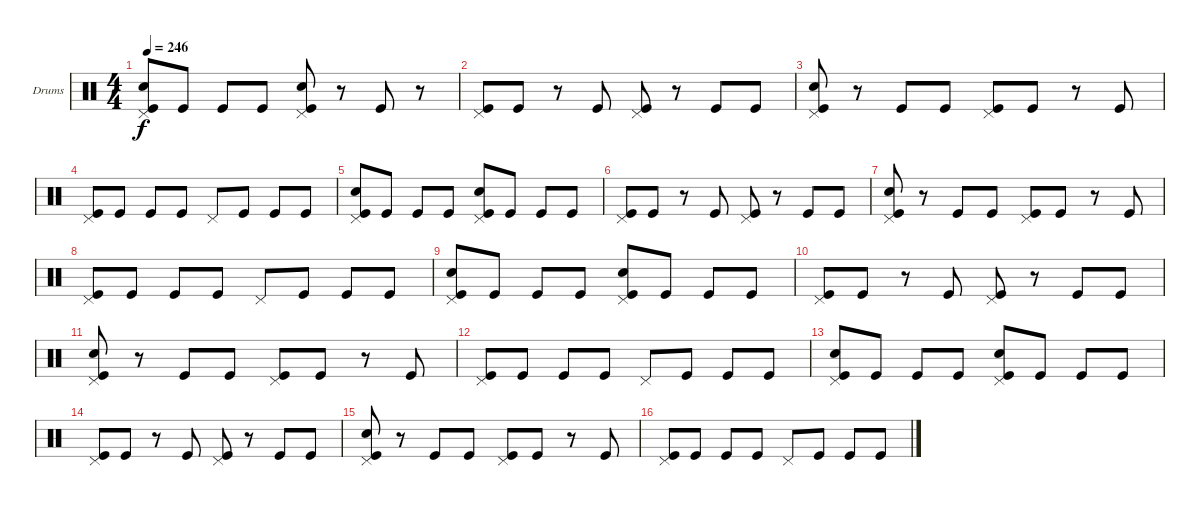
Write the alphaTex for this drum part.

\bracketExtendMode groupsimilarinstruments
\firstSystemTrackNameOrientation horizontal
\otherSystemsTrackNameOrientation horizontal
\track ("Drumkit" "Drums") {instrument percussion}
\staff {score}
\articulation defaults
\ts (4 4)
\tempo 246
\clef neutral
\ks c
("Kick (hit)" "Snare (hit) 2" "Pedal Hi-Hat (hit)").8{dy f} "Kick (hit)".8 "Kick (hit)".8 "Kick (hit)".8 ("Snare (hit) 2" "Pedal Hi-Hat (hit)" "Kick (hit)").8 r.8 "Kick (hit)".8 r.8 |
("Kick (hit)" "Pedal Hi-Hat (hit)").8 "Kick (hit)".8 r.8 "Kick (hit)".8 ("Pedal Hi-Hat (hit)" "Kick (hit)").8 r.8 "Kick (hit)".8 "Kick (hit)".8 |
("Snare (hit) 2" "Pedal Hi-Hat (hit)" "Kick (hit)").8 r.8 "Kick (hit)".8 "Kick (hit)".8 ("Kick (hit)" "Pedal Hi-Hat (hit)").8 "Kick (hit)".8 r.8 "Kick (hit)".8 |
("Pedal Hi-Hat (hit)" "Kick (hit)").8 "Kick (hit)".8 "Kick (hit)".8 "Kick (hit)".8 "Pedal Hi-Hat (hit)".8 "Kick (hit)".8 "Kick (hit)".8 "Kick (hit)".8 |
("Pedal Hi-Hat (hit)" "Snare (hit) 2" "Kick (hit)").8 "Kick (hit)".8 "Kick (hit)".8 "Kick (hit)".8 ("Snare (hit) 2" "Pedal Hi-Hat (hit)" "Kick (hit)").8 "Kick (hit)".8 "Kick (hit)".8 "Kick (hit)".8 |
("Kick (hit)" "Pedal Hi-Hat (hit)").8 "Kick (hit)".8 r.8 "Kick (hit)".8 ("Pedal Hi-Hat (hit)" "Kick (hit)").8 r.8 "Kick (hit)".8 "Kick (hit)".8 |
("Snare (hit) 2" "Pedal Hi-Hat (hit)" "Kick (hit)").8 r.8 "Kick (hit)".8 "Kick (hit)".8 ("Kick (hit)" "Pedal Hi-Hat (hit)").8 "Kick (hit)".8 r.8 "Kick (hit)".8 |
("Pedal Hi-Hat (hit)" "Kick (hit)").8 "Kick (hit)".8 "Kick (hit)".8 "Kick (hit)".8 "Pedal Hi-Hat (hit)".8 "Kick (hit)".8 "Kick (hit)".8 "Kick (hit)".8 |
("Kick (hit)" "Snare (hit) 2" "Pedal Hi-Hat (hit)").8 "Kick (hit)".8 "Kick (hit)".8 "Kick (hit)".8 ("Kick (hit)" "Pedal Hi-Hat (hit)" "Snare (hit) 2").8 "Kick (hit)".8 "Kick (hit)".8 "Kick (hit)".8 |
("Pedal Hi-Hat (hit)" "Kick (hit)").8 "Kick (hit)".8 r.8 "Kick (hit)".8 ("Kick (hit)" "Pedal Hi-Hat (hit)").8 r.8 "Kick (hit)".8 "Kick (hit)".8 |
("Kick (hit)" "Pedal Hi-Hat (hit)" "Snare (hit) 2").8 r.8 "Kick (hit)".8 "Kick (hit)".8 ("Pedal Hi-Hat (hit)" "Kick (hit)").8 "Kick (hit)".8 r.8 "Kick (hit)".8 |
("Kick (hit)" "Pedal Hi-Hat (hit)").8 "Kick (hit)".8 "Kick (hit)".8 "Kick (hit)".8 "Pedal Hi-Hat (hit)".8 "Kick (hit)".8 "Kick (hit)".8 "Kick (hit)".8 |
("Kick (hit)" "Snare (hit) 2" "Pedal Hi-Hat (hit)").8 "Kick (hit)".8 "Kick (hit)".8 "Kick (hit)".8 ("Kick (hit)" "Pedal Hi-Hat (hit)" "Snare (hit) 2").8 "Kick (hit)".8 "Kick (hit)".8 "Kick (hit)".8 |
("Pedal Hi-Hat (hit)" "Kick (hit)").8 "Kick (hit)".8 r.8 "Kick (hit)".8 ("Kick (hit)" "Pedal Hi-Hat (hit)").8 r.8 "Kick (hit)".8 "Kick (hit)".8 |
("Kick (hit)" "Pedal Hi-Hat (hit)" "Snare (hit) 2").8 r.8 "Kick (hit)".8 "Kick (hit)".8 ("Pedal Hi-Hat (hit)" "Kick (hit)").8 "Kick (hit)".8 r.8 "Kick (hit)".8 |
("Kick (hit)" "Pedal Hi-Hat (hit)").8 "Kick (hit)".8 "Kick (hit)".8 "Kick (hit)".8 "Pedal Hi-Hat (hit)".8 "Kick (hit)".8 "Kick (hit)".8 "Kick (hit)".8
